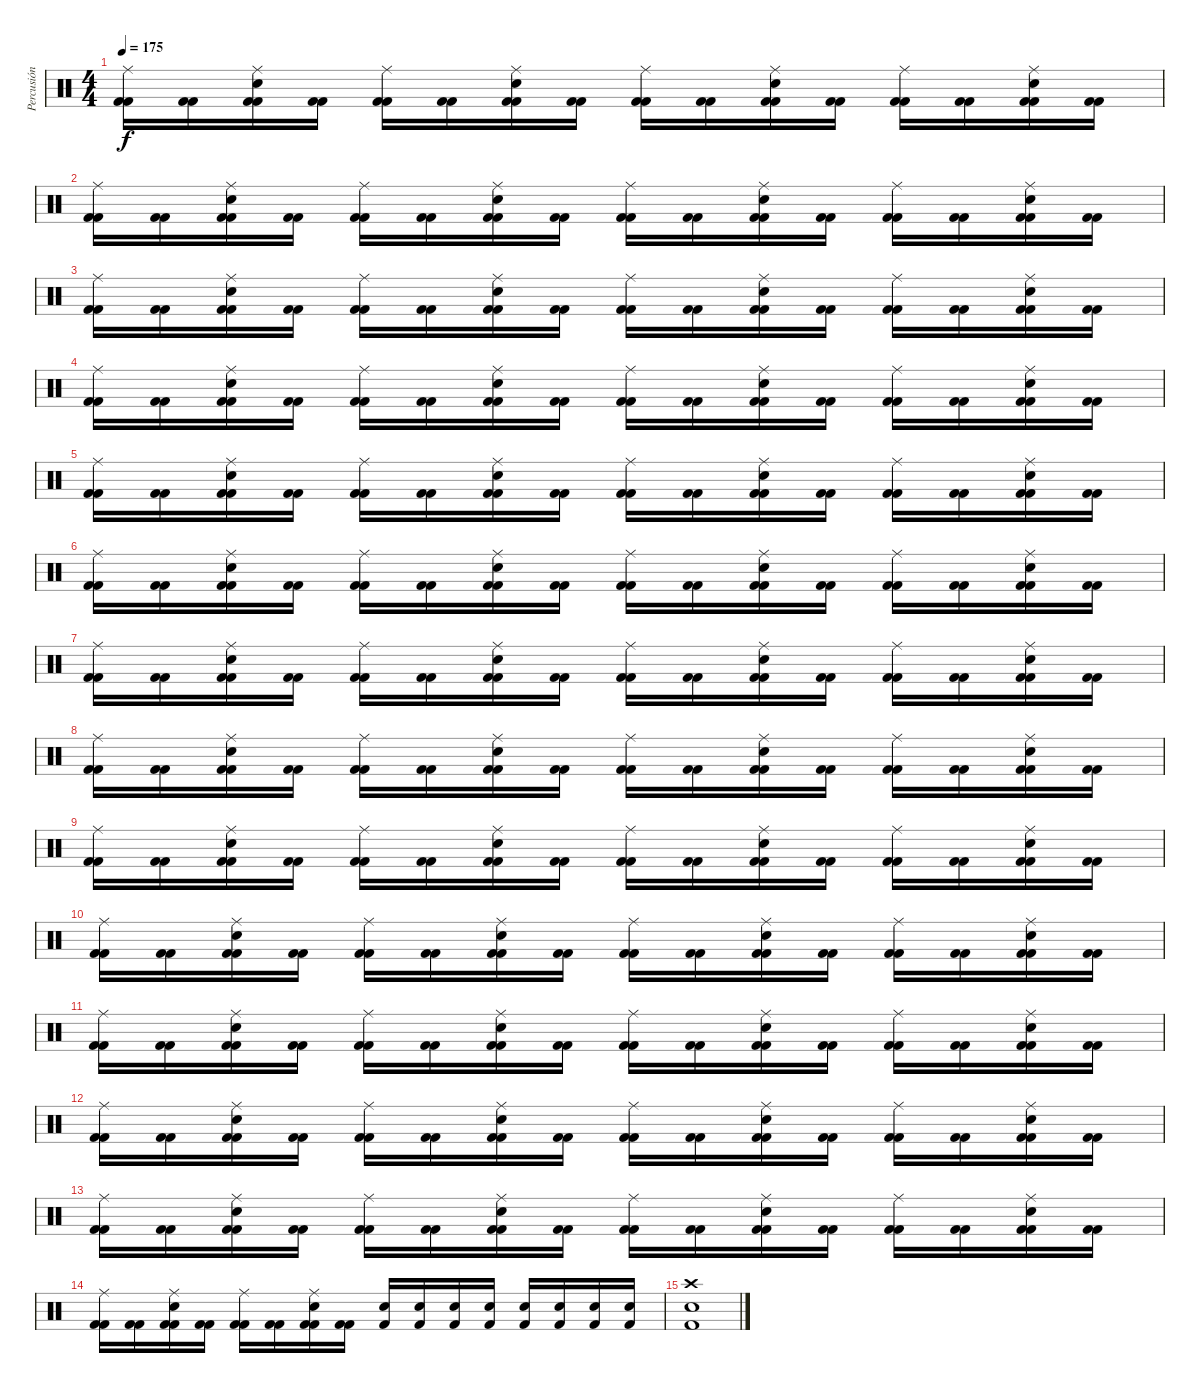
\track ("Percusión" "Percusión") {instrument percussion}
\staff {score}
\articulation defaults
\ts (4 4)
\tempo 175
\clef neutral
\ks c
("Kick (hit) 2" "Kick (hit) 2" "Ride (middle)").16{dy f} ("Kick (hit) 2" "Kick (hit) 2").16 ("Kick (hit) 2" "Kick (hit) 2" "Electric Snare (hit)" "Ride (middle)").16 ("Kick (hit) 2" "Kick (hit) 2").16 ("Kick (hit) 2" "Kick (hit) 2" "Ride (middle)").16 ("Kick (hit) 2" "Kick (hit) 2").16 ("Kick (hit) 2" "Kick (hit) 2" "Electric Snare (hit)" "Ride (middle)").16 ("Kick (hit) 2" "Kick (hit) 2").16 ("Kick (hit) 2" "Kick (hit) 2" "Ride (middle)").16 ("Kick (hit) 2" "Kick (hit) 2").16 ("Kick (hit) 2" "Kick (hit) 2" "Electric Snare (hit)" "Ride (middle)").16 ("Kick (hit) 2" "Kick (hit) 2").16 ("Kick (hit) 2" "Kick (hit) 2" "Ride (middle)").16 ("Kick (hit) 2" "Kick (hit) 2").16 ("Kick (hit) 2" "Kick (hit) 2" "Electric Snare (hit)" "Ride (middle)").16 ("Kick (hit) 2" "Kick (hit) 2").16 |
("Kick (hit) 2" "Kick (hit) 2" "Ride (middle)").16 ("Kick (hit) 2" "Kick (hit) 2").16 ("Kick (hit) 2" "Kick (hit) 2" "Electric Snare (hit)" "Ride (middle)").16 ("Kick (hit) 2" "Kick (hit) 2").16 ("Kick (hit) 2" "Kick (hit) 2" "Ride (middle)").16 ("Kick (hit) 2" "Kick (hit) 2").16 ("Kick (hit) 2" "Kick (hit) 2" "Electric Snare (hit)" "Ride (middle)").16 ("Kick (hit) 2" "Kick (hit) 2").16 ("Kick (hit) 2" "Kick (hit) 2" "Ride (middle)").16 ("Kick (hit) 2" "Kick (hit) 2").16 ("Kick (hit) 2" "Kick (hit) 2" "Electric Snare (hit)" "Ride (middle)").16 ("Kick (hit) 2" "Kick (hit) 2").16 ("Kick (hit) 2" "Kick (hit) 2" "Ride (middle)").16 ("Kick (hit) 2" "Kick (hit) 2").16 ("Kick (hit) 2" "Kick (hit) 2" "Electric Snare (hit)" "Ride (middle)").16 ("Kick (hit) 2" "Kick (hit) 2").16 |
("Kick (hit) 2" "Kick (hit) 2" "Ride (middle)").16 ("Kick (hit) 2" "Kick (hit) 2").16 ("Kick (hit) 2" "Kick (hit) 2" "Electric Snare (hit)" "Ride (middle)").16 ("Kick (hit) 2" "Kick (hit) 2").16 ("Kick (hit) 2" "Kick (hit) 2" "Ride (middle)").16 ("Kick (hit) 2" "Kick (hit) 2").16 ("Kick (hit) 2" "Kick (hit) 2" "Electric Snare (hit)" "Ride (middle)").16 ("Kick (hit) 2" "Kick (hit) 2").16 ("Kick (hit) 2" "Kick (hit) 2" "Ride (middle)").16 ("Kick (hit) 2" "Kick (hit) 2").16 ("Kick (hit) 2" "Kick (hit) 2" "Electric Snare (hit)" "Ride (middle)").16 ("Kick (hit) 2" "Kick (hit) 2").16 ("Kick (hit) 2" "Kick (hit) 2" "Ride (middle)").16 ("Kick (hit) 2" "Kick (hit) 2").16 ("Kick (hit) 2" "Kick (hit) 2" "Electric Snare (hit)" "Ride (middle)").16 ("Kick (hit) 2" "Kick (hit) 2").16 |
("Kick (hit) 2" "Kick (hit) 2" "Ride (middle)").16 ("Kick (hit) 2" "Kick (hit) 2").16 ("Kick (hit) 2" "Kick (hit) 2" "Electric Snare (hit)" "Ride (middle)").16 ("Kick (hit) 2" "Kick (hit) 2").16 ("Kick (hit) 2" "Kick (hit) 2" "Ride (middle)").16 ("Kick (hit) 2" "Kick (hit) 2").16 ("Kick (hit) 2" "Kick (hit) 2" "Electric Snare (hit)" "Ride (middle)").16 ("Kick (hit) 2" "Kick (hit) 2").16 ("Kick (hit) 2" "Kick (hit) 2" "Ride (middle)").16 ("Kick (hit) 2" "Kick (hit) 2").16 ("Kick (hit) 2" "Kick (hit) 2" "Electric Snare (hit)" "Ride (middle)").16 ("Kick (hit) 2" "Kick (hit) 2").16 ("Kick (hit) 2" "Kick (hit) 2" "Ride (middle)").16 ("Kick (hit) 2" "Kick (hit) 2").16 ("Kick (hit) 2" "Kick (hit) 2" "Electric Snare (hit)" "Ride (middle)").16 ("Kick (hit) 2" "Kick (hit) 2").16 |
("Kick (hit) 2" "Kick (hit) 2" "Ride (middle)").16 ("Kick (hit) 2" "Kick (hit) 2").16 ("Kick (hit) 2" "Kick (hit) 2" "Electric Snare (hit)" "Ride (middle)").16 ("Kick (hit) 2" "Kick (hit) 2").16 ("Kick (hit) 2" "Kick (hit) 2" "Ride (middle)").16 ("Kick (hit) 2" "Kick (hit) 2").16 ("Kick (hit) 2" "Kick (hit) 2" "Electric Snare (hit)" "Ride (middle)").16 ("Kick (hit) 2" "Kick (hit) 2").16 ("Kick (hit) 2" "Kick (hit) 2" "Ride (middle)").16 ("Kick (hit) 2" "Kick (hit) 2").16 ("Kick (hit) 2" "Kick (hit) 2" "Electric Snare (hit)" "Ride (middle)").16 ("Kick (hit) 2" "Kick (hit) 2").16 ("Kick (hit) 2" "Kick (hit) 2" "Ride (middle)").16 ("Kick (hit) 2" "Kick (hit) 2").16 ("Kick (hit) 2" "Kick (hit) 2" "Electric Snare (hit)" "Ride (middle)").16 ("Kick (hit) 2" "Kick (hit) 2").16 |
("Kick (hit) 2" "Kick (hit) 2" "Ride (middle)").16 ("Kick (hit) 2" "Kick (hit) 2").16 ("Kick (hit) 2" "Kick (hit) 2" "Electric Snare (hit)" "Ride (middle)").16 ("Kick (hit) 2" "Kick (hit) 2").16 ("Kick (hit) 2" "Kick (hit) 2" "Ride (middle)").16 ("Kick (hit) 2" "Kick (hit) 2").16 ("Kick (hit) 2" "Kick (hit) 2" "Electric Snare (hit)" "Ride (middle)").16 ("Kick (hit) 2" "Kick (hit) 2").16 ("Kick (hit) 2" "Kick (hit) 2" "Ride (middle)").16 ("Kick (hit) 2" "Kick (hit) 2").16 ("Kick (hit) 2" "Kick (hit) 2" "Electric Snare (hit)" "Ride (middle)").16 ("Kick (hit) 2" "Kick (hit) 2").16 ("Kick (hit) 2" "Kick (hit) 2" "Ride (middle)").16 ("Kick (hit) 2" "Kick (hit) 2").16 ("Kick (hit) 2" "Kick (hit) 2" "Electric Snare (hit)" "Ride (middle)").16 ("Kick (hit) 2" "Kick (hit) 2").16 |
("Kick (hit) 2" "Kick (hit) 2" "Ride (middle)").16 ("Kick (hit) 2" "Kick (hit) 2").16 ("Kick (hit) 2" "Kick (hit) 2" "Electric Snare (hit)" "Ride (middle)").16 ("Kick (hit) 2" "Kick (hit) 2").16 ("Kick (hit) 2" "Kick (hit) 2" "Ride (middle)").16 ("Kick (hit) 2" "Kick (hit) 2").16 ("Kick (hit) 2" "Kick (hit) 2" "Electric Snare (hit)" "Ride (middle)").16 ("Kick (hit) 2" "Kick (hit) 2").16 ("Kick (hit) 2" "Kick (hit) 2" "Ride (middle)").16 ("Kick (hit) 2" "Kick (hit) 2").16 ("Kick (hit) 2" "Kick (hit) 2" "Electric Snare (hit)" "Ride (middle)").16 ("Kick (hit) 2" "Kick (hit) 2").16 ("Kick (hit) 2" "Kick (hit) 2" "Ride (middle)").16 ("Kick (hit) 2" "Kick (hit) 2").16 ("Kick (hit) 2" "Kick (hit) 2" "Electric Snare (hit)" "Ride (middle)").16 ("Kick (hit) 2" "Kick (hit) 2").16 |
("Kick (hit) 2" "Kick (hit) 2" "Ride (middle)").16 ("Kick (hit) 2" "Kick (hit) 2").16 ("Kick (hit) 2" "Kick (hit) 2" "Electric Snare (hit)" "Ride (middle)").16 ("Kick (hit) 2" "Kick (hit) 2").16 ("Kick (hit) 2" "Kick (hit) 2" "Ride (middle)").16 ("Kick (hit) 2" "Kick (hit) 2").16 ("Kick (hit) 2" "Kick (hit) 2" "Electric Snare (hit)" "Ride (middle)").16 ("Kick (hit) 2" "Kick (hit) 2").16 ("Kick (hit) 2" "Kick (hit) 2" "Ride (middle)").16 ("Kick (hit) 2" "Kick (hit) 2").16 ("Kick (hit) 2" "Kick (hit) 2" "Electric Snare (hit)" "Ride (middle)").16 ("Kick (hit) 2" "Kick (hit) 2").16 ("Kick (hit) 2" "Kick (hit) 2" "Ride (middle)").16 ("Kick (hit) 2" "Kick (hit) 2").16 ("Kick (hit) 2" "Kick (hit) 2" "Electric Snare (hit)" "Ride (middle)").16 ("Kick (hit) 2" "Kick (hit) 2").16 |
("Kick (hit) 2" "Kick (hit) 2" "Ride (middle)").16 ("Kick (hit) 2" "Kick (hit) 2").16 ("Kick (hit) 2" "Kick (hit) 2" "Electric Snare (hit)" "Ride (middle)").16 ("Kick (hit) 2" "Kick (hit) 2").16 ("Kick (hit) 2" "Kick (hit) 2" "Ride (middle)").16 ("Kick (hit) 2" "Kick (hit) 2").16 ("Kick (hit) 2" "Kick (hit) 2" "Electric Snare (hit)" "Ride (middle)").16 ("Kick (hit) 2" "Kick (hit) 2").16 ("Kick (hit) 2" "Kick (hit) 2" "Ride (middle)").16 ("Kick (hit) 2" "Kick (hit) 2").16 ("Kick (hit) 2" "Kick (hit) 2" "Electric Snare (hit)" "Ride (middle)").16 ("Kick (hit) 2" "Kick (hit) 2").16 ("Kick (hit) 2" "Kick (hit) 2" "Ride (middle)").16 ("Kick (hit) 2" "Kick (hit) 2").16 ("Kick (hit) 2" "Kick (hit) 2" "Electric Snare (hit)" "Ride (middle)").16 ("Kick (hit) 2" "Kick (hit) 2").16 |
("Kick (hit) 2" "Kick (hit) 2" "Ride (middle)").16 ("Kick (hit) 2" "Kick (hit) 2").16 ("Kick (hit) 2" "Kick (hit) 2" "Electric Snare (hit)" "Ride (middle)").16 ("Kick (hit) 2" "Kick (hit) 2").16 ("Kick (hit) 2" "Kick (hit) 2" "Ride (middle)").16 ("Kick (hit) 2" "Kick (hit) 2").16 ("Kick (hit) 2" "Kick (hit) 2" "Electric Snare (hit)" "Ride (middle)").16 ("Kick (hit) 2" "Kick (hit) 2").16 ("Kick (hit) 2" "Kick (hit) 2" "Ride (middle)").16 ("Kick (hit) 2" "Kick (hit) 2").16 ("Kick (hit) 2" "Kick (hit) 2" "Electric Snare (hit)" "Ride (middle)").16 ("Kick (hit) 2" "Kick (hit) 2").16 ("Kick (hit) 2" "Kick (hit) 2" "Ride (middle)").16 ("Kick (hit) 2" "Kick (hit) 2").16 ("Kick (hit) 2" "Kick (hit) 2" "Electric Snare (hit)" "Ride (middle)").16 ("Kick (hit) 2" "Kick (hit) 2").16 |
("Kick (hit) 2" "Kick (hit) 2" "Ride (middle)").16 ("Kick (hit) 2" "Kick (hit) 2").16 ("Kick (hit) 2" "Kick (hit) 2" "Electric Snare (hit)" "Ride (middle)").16 ("Kick (hit) 2" "Kick (hit) 2").16 ("Kick (hit) 2" "Kick (hit) 2" "Ride (middle)").16 ("Kick (hit) 2" "Kick (hit) 2").16 ("Kick (hit) 2" "Kick (hit) 2" "Electric Snare (hit)" "Ride (middle)").16 ("Kick (hit) 2" "Kick (hit) 2").16 ("Kick (hit) 2" "Kick (hit) 2" "Ride (middle)").16 ("Kick (hit) 2" "Kick (hit) 2").16 ("Kick (hit) 2" "Kick (hit) 2" "Electric Snare (hit)" "Ride (middle)").16 ("Kick (hit) 2" "Kick (hit) 2").16 ("Kick (hit) 2" "Kick (hit) 2" "Ride (middle)").16 ("Kick (hit) 2" "Kick (hit) 2").16 ("Kick (hit) 2" "Kick (hit) 2" "Electric Snare (hit)" "Ride (middle)").16 ("Kick (hit) 2" "Kick (hit) 2").16 |
("Kick (hit) 2" "Kick (hit) 2" "Ride (middle)").16 ("Kick (hit) 2" "Kick (hit) 2").16 ("Kick (hit) 2" "Kick (hit) 2" "Electric Snare (hit)" "Ride (middle)").16 ("Kick (hit) 2" "Kick (hit) 2").16 ("Kick (hit) 2" "Kick (hit) 2" "Ride (middle)").16 ("Kick (hit) 2" "Kick (hit) 2").16 ("Kick (hit) 2" "Kick (hit) 2" "Electric Snare (hit)" "Ride (middle)").16 ("Kick (hit) 2" "Kick (hit) 2").16 ("Kick (hit) 2" "Kick (hit) 2" "Ride (middle)").16 ("Kick (hit) 2" "Kick (hit) 2").16 ("Kick (hit) 2" "Kick (hit) 2" "Electric Snare (hit)" "Ride (middle)").16 ("Kick (hit) 2" "Kick (hit) 2").16 ("Kick (hit) 2" "Kick (hit) 2" "Ride (middle)").16 ("Kick (hit) 2" "Kick (hit) 2").16 ("Kick (hit) 2" "Kick (hit) 2" "Electric Snare (hit)" "Ride (middle)").16 ("Kick (hit) 2" "Kick (hit) 2").16 |
("Kick (hit) 2" "Kick (hit) 2" "Ride (middle)").16 ("Kick (hit) 2" "Kick (hit) 2").16 ("Kick (hit) 2" "Kick (hit) 2" "Electric Snare (hit)" "Ride (middle)").16 ("Kick (hit) 2" "Kick (hit) 2").16 ("Kick (hit) 2" "Kick (hit) 2" "Ride (middle)").16 ("Kick (hit) 2" "Kick (hit) 2").16 ("Kick (hit) 2" "Kick (hit) 2" "Electric Snare (hit)" "Ride (middle)").16 ("Kick (hit) 2" "Kick (hit) 2").16 ("Kick (hit) 2" "Kick (hit) 2" "Ride (middle)").16 ("Kick (hit) 2" "Kick (hit) 2").16 ("Kick (hit) 2" "Kick (hit) 2" "Electric Snare (hit)" "Ride (middle)").16 ("Kick (hit) 2" "Kick (hit) 2").16 ("Kick (hit) 2" "Kick (hit) 2" "Ride (middle)").16 ("Kick (hit) 2" "Kick (hit) 2").16 ("Kick (hit) 2" "Kick (hit) 2" "Electric Snare (hit)" "Ride (middle)").16 ("Kick (hit) 2" "Kick (hit) 2").16 |
("Kick (hit) 2" "Kick (hit) 2" "Ride (middle)").16 ("Kick (hit) 2" "Kick (hit) 2").16 ("Kick (hit) 2" "Kick (hit) 2" "Electric Snare (hit)" "Ride (middle)").16 ("Kick (hit) 2" "Kick (hit) 2").16 ("Kick (hit) 2" "Kick (hit) 2" "Ride (middle)").16 ("Kick (hit) 2" "Kick (hit) 2").16 ("Kick (hit) 2" "Kick (hit) 2" "Electric Snare (hit)" "Ride (middle)").16 ("Kick (hit) 2" "Kick (hit) 2").16 ("Kick (hit) 2" "Electric Snare (hit)").16 ("Kick (hit) 2" "Electric Snare (hit)").16 ("Kick (hit) 2" "Electric Snare (hit)").16 ("Kick (hit) 2" "Electric Snare (hit)").16 ("Kick (hit) 2" "Electric Snare (hit)").16 ("Kick (hit) 2" "Electric Snare (hit)").16 ("Kick (hit) 2" "Electric Snare (hit)").16 ("Kick (hit) 2" "Electric Snare (hit)").16 |
("Kick (hit) 2" "Electric Snare (hit)" "Crash high (hit)").1
